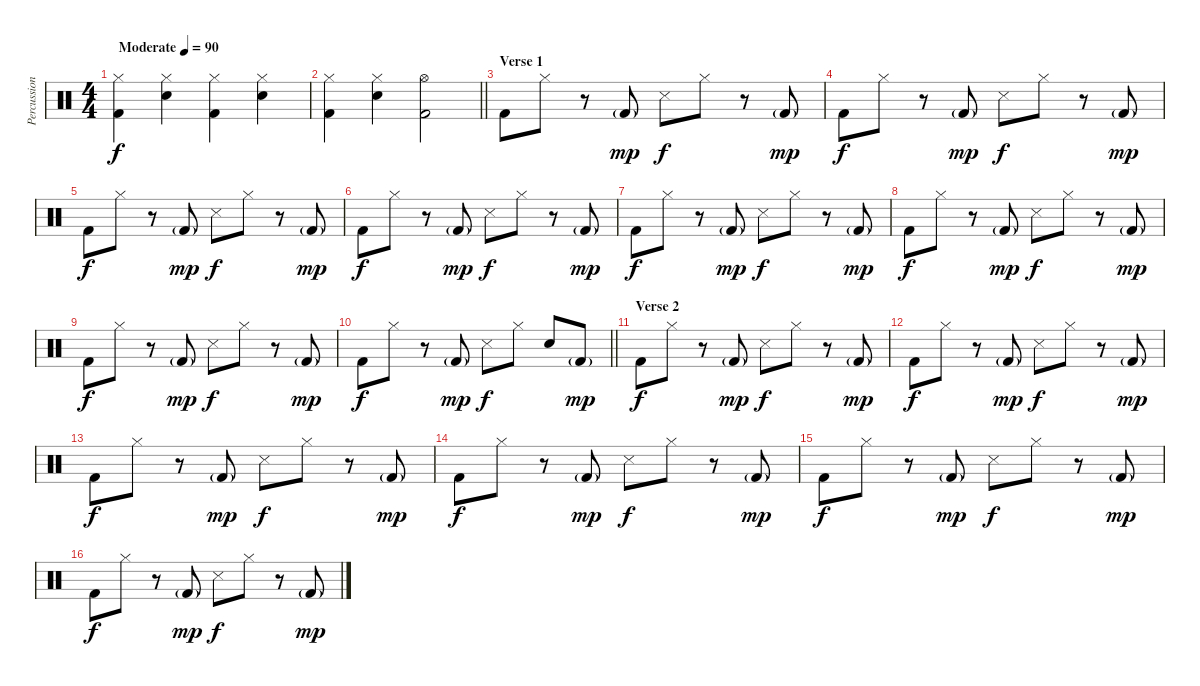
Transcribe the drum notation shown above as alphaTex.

\track ("Percussion" "Percussion") {instrument percussion}
\staff {score}
\articulation defaults
\ts (4 4)
\tempo (90 "Moderate")
\clef neutral
\ks c
("Hi-Hat (closed)" "Kick (hit) 2").4{dy f} ("Hi-Hat (closed)" "Snare (hit) 2").4 ("Hi-Hat (closed)" "Kick (hit) 2").4 ("Hi-Hat (closed)" "Snare (hit) 2").4 |
\barLineRight lightlight
("Hi-Hat (closed)" "Kick (hit) 2").4 ("Hi-Hat (closed)" "Snare (hit) 2").4 ("Hi-Hat (open)" "Kick (hit) 2").2 |
\section ("" "Verse 1")
"Kick (hit) 2".8 "Hi-Hat (closed)".8 r.8 "Kick (hit) 2"{g}.8{dy mp} "Snare (side stick) 3".8{dy f} "Hi-Hat (closed)".8 r.8 "Kick (hit) 2"{g}.8{dy mp} |
"Kick (hit) 2".8{dy f} "Hi-Hat (closed)".8 r.8 "Kick (hit) 2"{g}.8{dy mp} "Snare (side stick) 3".8{dy f} "Hi-Hat (closed)".8 r.8 "Kick (hit) 2"{g}.8{dy mp} |
"Kick (hit) 2".8{dy f} "Hi-Hat (closed)".8 r.8 "Kick (hit) 2"{g}.8{dy mp} "Snare (side stick) 3".8{dy f} "Hi-Hat (closed)".8 r.8 "Kick (hit) 2"{g}.8{dy mp} |
"Kick (hit) 2".8{dy f} "Hi-Hat (closed)".8 r.8 "Kick (hit) 2"{g}.8{dy mp} "Snare (side stick) 3".8{dy f} "Hi-Hat (closed)".8 r.8 "Kick (hit) 2"{g}.8{dy mp} |
"Kick (hit) 2".8{dy f} "Hi-Hat (closed)".8 r.8 "Kick (hit) 2"{g}.8{dy mp} "Snare (side stick) 3".8{dy f} "Hi-Hat (closed)".8 r.8 "Kick (hit) 2"{g}.8{dy mp} |
"Kick (hit) 2".8{dy f} "Hi-Hat (closed)".8 r.8 "Kick (hit) 2"{g}.8{dy mp} "Snare (side stick) 3".8{dy f} "Hi-Hat (closed)".8 r.8 "Kick (hit) 2"{g}.8{dy mp} |
"Kick (hit) 2".8{dy f} "Hi-Hat (closed)".8 r.8 "Kick (hit) 2"{g}.8{dy mp} "Snare (side stick) 3".8{dy f} "Hi-Hat (closed)".8 r.8 "Kick (hit) 2"{g}.8{dy mp} |
\barLineRight lightlight "Kick (hit) 2".8{dy f} "Hi-Hat (closed)".8
r.8 "Kick (hit) 2"{g}.8{dy mp} "Snare (side stick) 3".8{dy f} "Hi-Hat (closed)".8 "Snare (hit) 2".8 "Kick (hit) 2"{g}.8{dy mp} |
\section ("" "Verse 2")
"Kick (hit) 2".8{dy f} "Hi-Hat (closed)".8 r.8 "Kick (hit) 2"{g}.8{dy mp} "Snare (side stick) 3".8{dy f} "Hi-Hat (closed)".8 r.8 "Kick (hit) 2"{g}.8{dy mp} |
"Kick (hit) 2".8{dy f} "Hi-Hat (closed)".8 r.8 "Kick (hit) 2"{g}.8{dy mp} "Snare (side stick) 3".8{dy f} "Hi-Hat (closed)".8 r.8 "Kick (hit) 2"{g}.8{dy mp} |
"Kick (hit) 2".8{dy f} "Hi-Hat (closed)".8 r.8 "Kick (hit) 2"{g}.8{dy mp} "Snare (side stick) 3".8{dy f} "Hi-Hat (closed)".8 r.8 "Kick (hit) 2"{g}.8{dy mp} |
"Kick (hit) 2".8{dy f} "Hi-Hat (closed)".8 r.8 "Kick (hit) 2"{g}.8{dy mp} "Snare (side stick) 3".8{dy f} "Hi-Hat (closed)".8 r.8 "Kick (hit) 2"{g}.8{dy mp} |
"Kick (hit) 2".8{dy f} "Hi-Hat (closed)".8 r.8 "Kick (hit) 2"{g}.8{dy mp} "Snare (side stick) 3".8{dy f} "Hi-Hat (closed)".8 r.8 "Kick (hit) 2"{g}.8{dy mp} |
"Kick (hit) 2".8{dy f} "Hi-Hat (closed)".8 r.8 "Kick (hit) 2"{g}.8{dy mp} "Snare (side stick) 3".8{dy f} "Hi-Hat (closed)".8 r.8 "Kick (hit) 2"{g}.8{dy mp}
